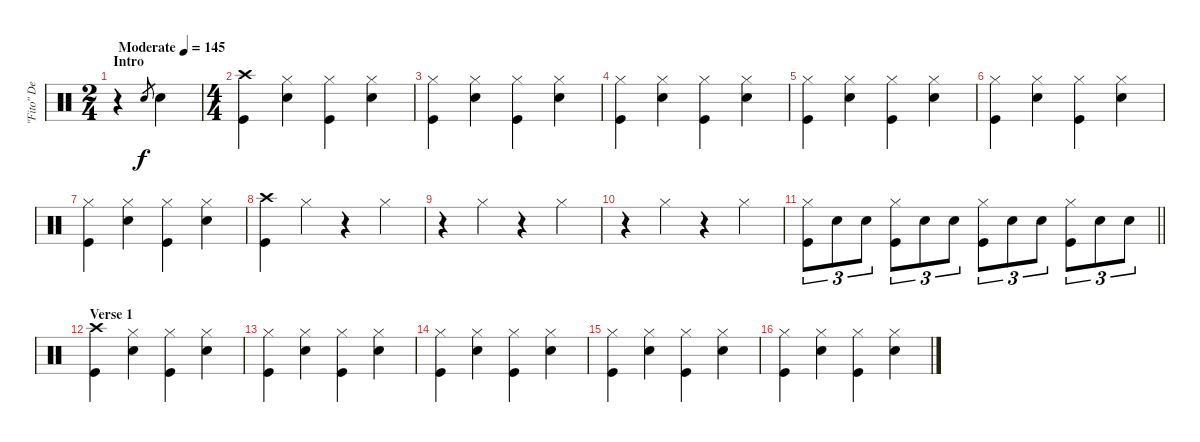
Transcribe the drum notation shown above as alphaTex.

\track ("\"Fito\" De La Parra" "\"Fito\" De ") {instrument percussion}
\staff {score}
\articulation defaults
\ts (2 4)
\section ("" "Intro")
\tempo (145 "Moderate")
\clef neutral
\ks c
r.4{dy f} "Snare (hit) 2".8{gr} "Snare (hit) 2".4 |
\ts (4 4)
("Crash high (hit)" "Kick (hit)").4 ("Hi-Hat (closed)" "Snare (hit) 2").4 ("Hi-Hat (closed)" "Kick (hit)").4 ("Hi-Hat (closed)" "Snare (hit) 2").4 |
("Hi-Hat (closed)" "Kick (hit)").4 ("Hi-Hat (closed)" "Snare (hit) 2").4 ("Hi-Hat (closed)" "Kick (hit)").4 ("Hi-Hat (closed)" "Snare (hit) 2").4 |
("Hi-Hat (closed)" "Kick (hit)").4 ("Hi-Hat (closed)" "Snare (hit) 2").4 ("Hi-Hat (closed)" "Kick (hit)").4 ("Hi-Hat (closed)" "Snare (hit) 2").4 |
("Hi-Hat (closed)" "Kick (hit)").4 ("Hi-Hat (closed)" "Snare (hit) 2").4 ("Hi-Hat (closed)" "Kick (hit)").4 ("Hi-Hat (closed)" "Snare (hit) 2").4 |
("Hi-Hat (closed)" "Kick (hit)").4 ("Hi-Hat (closed)" "Snare (hit) 2").4 ("Hi-Hat (closed)" "Kick (hit)").4 ("Hi-Hat (closed)" "Snare (hit) 2").4 |
("Hi-Hat (closed)" "Kick (hit)").4 ("Hi-Hat (closed)" "Snare (hit) 2").4 ("Hi-Hat (closed)" "Kick (hit)").4 ("Hi-Hat (closed)" "Snare (hit) 2").4 |
("Crash high (hit)" "Kick (hit)").4 "Hi-Hat (closed)".4 r.4 "Hi-Hat (closed)".4 |
r.4 "Hi-Hat (closed)".4 r.4 "Hi-Hat (closed)".4 |
r.4 "Hi-Hat (closed)".4 r.4 "Hi-Hat (closed)".4 |
\barLineRight lightlight
("Hi-Hat (closed)" "Kick (hit)").8{tu (3 2)} "Snare (hit) 2".8{tu (3 2)} "Snare (hit) 2".8{tu (3 2)} ("Hi-Hat (closed)" "Kick (hit)").8{tu (3 2)} "Snare (hit) 2".8{tu (3 2)} "Snare (hit) 2".8{tu (3 2)} ("Hi-Hat (closed)" "Kick (hit)").8{tu (3 2)} "Snare (hit) 2".8{tu (3 2)} "Snare (hit) 2".8{tu (3 2)} ("Hi-Hat (closed)" "Kick (hit)").8{tu (3 2)} "Snare (hit) 2".8{tu (3 2)} "Snare (hit) 2".8{tu (3 2)} |
\section ("" "Verse 1")
("Crash high (hit)" "Kick (hit)").4 ("Hi-Hat (closed)" "Snare (hit) 2").4 ("Hi-Hat (closed)" "Kick (hit)").4 ("Hi-Hat (closed)" "Snare (hit) 2").4 |
("Hi-Hat (closed)" "Kick (hit)").4 ("Hi-Hat (closed)" "Snare (hit) 2").4 ("Hi-Hat (closed)" "Kick (hit)").4 ("Hi-Hat (closed)" "Snare (hit) 2").4 |
("Hi-Hat (closed)" "Kick (hit)").4 ("Hi-Hat (closed)" "Snare (hit) 2").4 ("Hi-Hat (closed)" "Kick (hit)").4 ("Hi-Hat (closed)" "Snare (hit) 2").4 |
("Hi-Hat (closed)" "Kick (hit)").4 ("Hi-Hat (closed)" "Snare (hit) 2").4 ("Hi-Hat (closed)" "Kick (hit)").4 ("Hi-Hat (closed)" "Snare (hit) 2").4 |
("Hi-Hat (closed)" "Kick (hit)").4 ("Hi-Hat (closed)" "Snare (hit) 2").4 ("Hi-Hat (closed)" "Kick (hit)").4 ("Hi-Hat (closed)" "Snare (hit) 2").4
